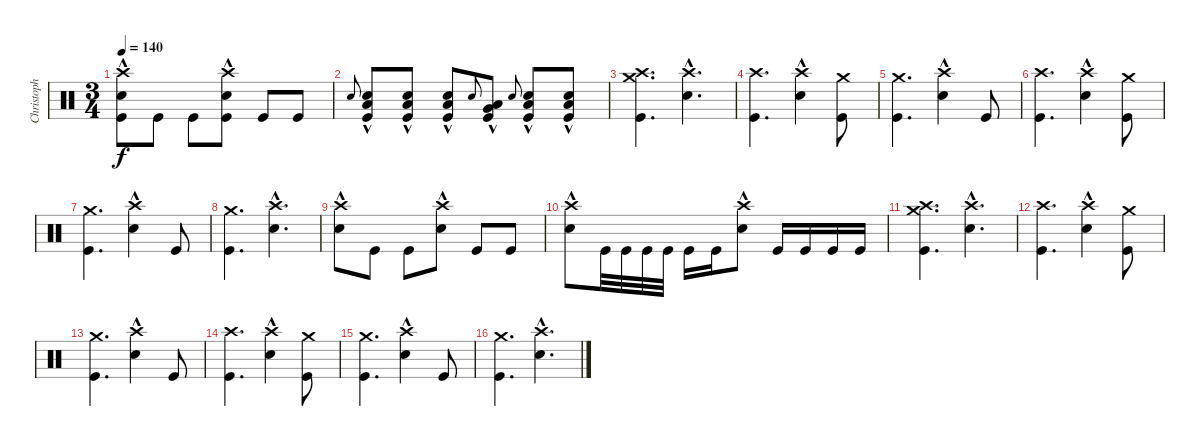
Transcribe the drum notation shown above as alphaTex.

\track ("Christoph \"Doom\" Schneider" "Christoph ") {instrument percussion}
\staff {score}
\articulation defaults
\ts (3 4)
\tempo 140
\clef neutral
\ks c
("Crash high (hit)" "Kick (hit)" "Snare (hit) 2"{hac}).8{dy f} "Kick (hit)".8 "Kick (hit)".8 ("Crash high (hit)" "Kick (hit)" "Snare (hit) 2"{hac}).8 "Kick (hit)".8 "Kick (hit)".8 |
"Snare (hit)".8{gr onbeat} ("Kick (hit)" "Snare (hit) 2"{hac} "Low Floor Tom (hit)"{hac}).8 ("Kick (hit)" "Snare (hit) 2"{hac} "Low Floor Tom (hit)"{hac}).8 ("Kick (hit)" "Snare (hit) 2"{hac} "Low Floor Tom (hit)"{hac}).8 "Snare (hit)".8{gr onbeat} ("Kick (hit)" "Low Tom (hit)"{hac} "Very Low Tom (hit)"{hac}).8 "Snare (hit)".8{gr onbeat} ("Kick (hit)" "Snare (hit) 2"{hac} "Low Floor Tom (hit)"{hac}).8 ("Kick (hit)" "Snare (hit) 2"{hac} "Low Floor Tom (hit)"{hac}).8 |
("Crash high (hit)" "Kick (hit)" "Crash medium (hit)").4{d} ("Crash high (hit)" "Snare (hit) 2"{hac}).4{d} |
("Crash high (hit)" "Kick (hit)").4{d} ("Crash high (hit)" "Snare (hit) 2"{hac}).4 ("Crash medium (hit)" "Kick (hit)").8 |
("Kick (hit)" "Crash medium (hit)").4{d} ("Crash high (hit)" "Snare (hit) 2"{hac}).4 "Kick (hit)".8 |
("Crash high (hit)" "Kick (hit)").4{d} ("Crash high (hit)" "Snare (hit) 2"{hac}).4 ("Crash medium (hit)" "Kick (hit)").8 |
("Kick (hit)" "Crash medium (hit)").4{d} ("Crash high (hit)" "Snare (hit) 2"{hac}).4 "Kick (hit)".8 |
("Kick (hit)" "Crash medium (hit)").4{d} ("Crash high (hit)" "Snare (hit) 2"{hac}).4{d} |
("Crash high (hit)" "Snare (hit) 2"{hac}).8 "Kick (hit)".8 "Kick (hit)".8 ("Crash high (hit)" "Snare (hit) 2"{hac}).8 "Kick (hit)".8 "Kick (hit)".8 |
("Crash high (hit)" "Snare (hit) 2"{hac}).8 "Kick (hit)".32 "Kick (hit)".32 "Kick (hit)".32 "Kick (hit)".32 "Kick (hit)".16 "Kick (hit)".16 ("Crash high (hit)" "Snare (hit) 2"{hac}).8 "Kick (hit)".16 "Kick (hit)".16 "Kick (hit)".16 "Kick (hit)".16 |
("Crash high (hit)" "Kick (hit)" "Crash medium (hit)").4{d} ("Crash high (hit)" "Snare (hit) 2"{hac}).4{d} |
("Crash high (hit)" "Kick (hit)").4{d} ("Crash high (hit)" "Snare (hit) 2"{hac}).4 ("Crash medium (hit)" "Kick (hit)").8 |
("Kick (hit)" "Crash medium (hit)").4{d} ("Crash high (hit)" "Snare (hit) 2"{hac}).4 "Kick (hit)".8 |
("Crash high (hit)" "Kick (hit)").4{d} ("Crash high (hit)" "Snare (hit) 2"{hac}).4 ("Crash medium (hit)" "Kick (hit)").8 |
("Kick (hit)" "Crash medium (hit)").4{d} ("Crash high (hit)" "Snare (hit) 2"{hac}).4 "Kick (hit)".8 |
("Kick (hit)" "Crash medium (hit)").4{d} ("Crash high (hit)" "Snare (hit) 2"{hac}).4{d}
